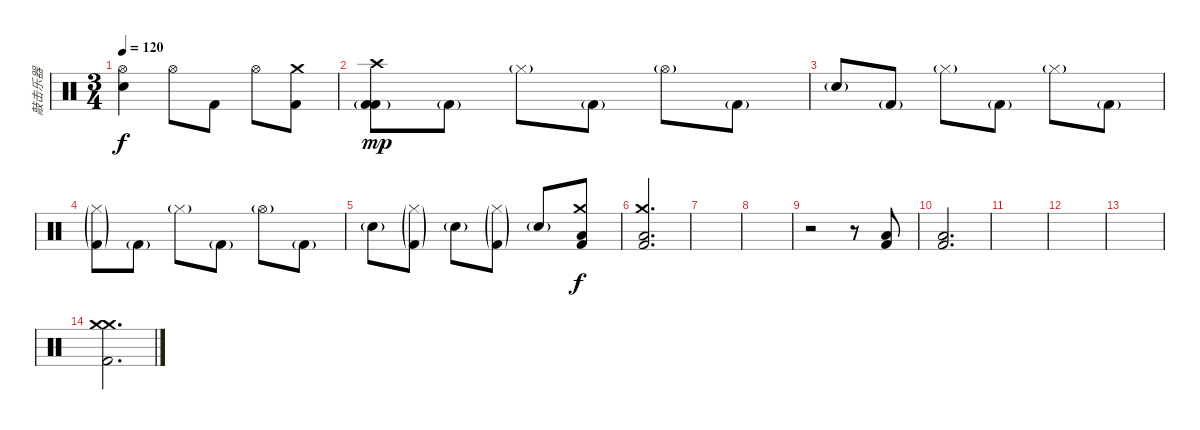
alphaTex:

\track ("敲击乐器" "敲击乐器") {instrument percussion}
\staff {score}
\articulation defaults
\ts (3 4)
\tempo 120
\clef neutral
\ks c
("Hi-Hat (open)" "Snare (hit) 2").4{dy f} "Hi-Hat (open)".8 "Kick (hit) 2".8 "Hi-Hat (open)".8 ("Kick (hit) 2" "Crash medium (hit)").8 |
("Kick (hit) 2" "Crash high (hit)" "Kick (hit) 2"{g}).8{dy mp} "Kick (hit) 2"{g}.8 "Hi-Hat (closed)"{g}.8 "Kick (hit) 2"{g}.8 "Hi-Hat (open)"{g}.8 "Kick (hit) 2"{g}.8 |
"Electric Snare (hit)"{g}.8 "Kick (hit) 2"{g}.8 "Hi-Hat (closed)"{g}.8 "Kick (hit) 2"{g}.8 "Hi-Hat (closed)"{g}.8 "Kick (hit) 2"{g}.8 |
("Hi-Hat (closed)"{g} "Kick (hit) 2"{g}).8 "Kick (hit) 2"{g}.8 "Hi-Hat (closed)"{g}.8 "Kick (hit) 2"{g}.8 "Hi-Hat (open)"{g}.8 "Kick (hit) 2"{g}.8 |
"Electric Snare (hit)"{g}.8 ("Hi-Hat (closed)"{g} "Kick (hit) 2"{g}).8 "Electric Snare (hit)"{g}.8 ("Hi-Hat (closed)"{g} "Kick (hit) 2"{g}).8 "Electric Snare (hit)"{g}.8 ("Crash medium (hit)" "Low Floor Tom (hit)" "Kick (hit) 2").8{dy f} |
("Kick (hit) 2" "Low Floor Tom (hit)" "Crash medium (hit)").2{d} |
|
|
r.2 r.8 ("Low Floor Tom (hit)" "Kick (hit) 2").8 |
("Low Floor Tom (hit)" "Kick (hit) 2").2{d} |
|
|
|
("Kick (hit) 2" "Crash medium (hit)" "Crash medium (hit)").2{d}
